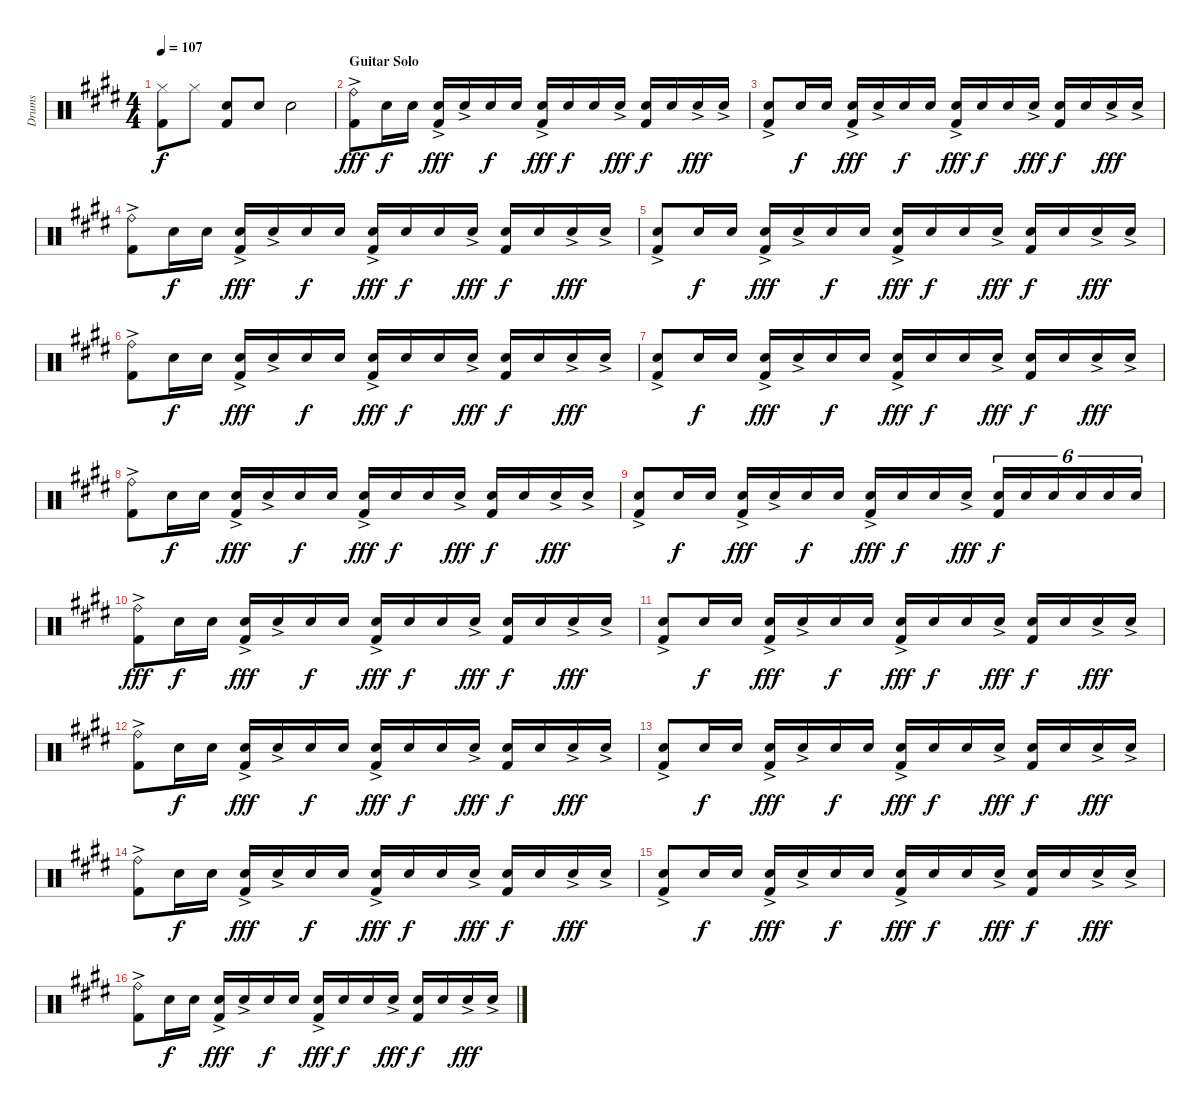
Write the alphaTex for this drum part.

\track ("Drums" "Drums") {instrument percussion}
\staff {score}
\articulation defaults
\ts (4 4)
\tempo 107
\clef neutral
\ks c#minor
("Hi-Hat (closed)" "Kick (hit) 2").8{dy f} "Hi-Hat (closed)".8 ("Electric Snare (hit)" "Kick (hit) 2").8 "Electric Snare (hit)".8 "Electric Snare (hit)".2 |
\section ("" "Guitar Solo")
("Ride (bell)"{ac} "Kick (hit) 2").8{dy fff} "Electric Snare (hit)".16{dy f} "Electric Snare (hit)".16 ("Electric Snare (hit)"{ac} "Kick (hit) 2").16{dy fff} "Electric Snare (hit)"{ac}.16 "Electric Snare (hit)".16{dy f} "Electric Snare (hit)".16 ("Electric Snare (hit)"{ac} "Kick (hit) 2").16{dy fff} "Electric Snare (hit)".16{dy f} "Electric Snare (hit)".16 "Electric Snare (hit)"{ac}.16{dy fff} ("Electric Snare (hit)" "Kick (hit) 2").16{dy f} "Electric Snare (hit)".16 "Electric Snare (hit)"{ac}.16{dy fff} "Electric Snare (hit)"{ac}.16 |
("Electric Snare (hit)"{ac} "Kick (hit) 2").8 "Electric Snare (hit)".16{dy f} "Electric Snare (hit)".16 ("Electric Snare (hit)"{ac} "Kick (hit) 2").16{dy fff} "Electric Snare (hit)"{ac}.16 "Electric Snare (hit)".16{dy f} "Electric Snare (hit)".16 ("Electric Snare (hit)"{ac} "Kick (hit) 2").16{dy fff} "Electric Snare (hit)".16{dy f} "Electric Snare (hit)".16 "Electric Snare (hit)"{ac}.16{dy fff} ("Electric Snare (hit)" "Kick (hit) 2").16{dy f} "Electric Snare (hit)".16 "Electric Snare (hit)"{ac}.16{dy fff} "Electric Snare (hit)"{ac}.16 |
("Ride (bell)"{ac} "Kick (hit) 2").8 "Electric Snare (hit)".16{dy f} "Electric Snare (hit)".16 ("Electric Snare (hit)"{ac} "Kick (hit) 2").16{dy fff} "Electric Snare (hit)"{ac}.16 "Electric Snare (hit)".16{dy f} "Electric Snare (hit)".16 ("Electric Snare (hit)"{ac} "Kick (hit) 2").16{dy fff} "Electric Snare (hit)".16{dy f} "Electric Snare (hit)".16 "Electric Snare (hit)"{ac}.16{dy fff} ("Electric Snare (hit)" "Kick (hit) 2").16{dy f} "Electric Snare (hit)".16 "Electric Snare (hit)"{ac}.16{dy fff} "Electric Snare (hit)"{ac}.16 |
("Electric Snare (hit)"{ac} "Kick (hit) 2").8 "Electric Snare (hit)".16{dy f} "Electric Snare (hit)".16 ("Electric Snare (hit)"{ac} "Kick (hit) 2").16{dy fff} "Electric Snare (hit)"{ac}.16 "Electric Snare (hit)".16{dy f} "Electric Snare (hit)".16 ("Electric Snare (hit)"{ac} "Kick (hit) 2").16{dy fff} "Electric Snare (hit)".16{dy f} "Electric Snare (hit)".16 "Electric Snare (hit)"{ac}.16{dy fff} ("Electric Snare (hit)" "Kick (hit) 2").16{dy f} "Electric Snare (hit)".16 "Electric Snare (hit)"{ac}.16{dy fff} "Electric Snare (hit)"{ac}.16 |
("Ride (bell)"{ac} "Kick (hit) 2").8 "Electric Snare (hit)".16{dy f} "Electric Snare (hit)".16 ("Electric Snare (hit)"{ac} "Kick (hit) 2").16{dy fff} "Electric Snare (hit)"{ac}.16 "Electric Snare (hit)".16{dy f} "Electric Snare (hit)".16 ("Electric Snare (hit)"{ac} "Kick (hit) 2").16{dy fff} "Electric Snare (hit)".16{dy f} "Electric Snare (hit)".16 "Electric Snare (hit)"{ac}.16{dy fff} ("Electric Snare (hit)" "Kick (hit) 2").16{dy f} "Electric Snare (hit)".16 "Electric Snare (hit)"{ac}.16{dy fff} "Electric Snare (hit)"{ac}.16 |
("Electric Snare (hit)"{ac} "Kick (hit) 2").8 "Electric Snare (hit)".16{dy f} "Electric Snare (hit)".16 ("Electric Snare (hit)"{ac} "Kick (hit) 2").16{dy fff} "Electric Snare (hit)"{ac}.16 "Electric Snare (hit)".16{dy f} "Electric Snare (hit)".16 ("Electric Snare (hit)"{ac} "Kick (hit) 2").16{dy fff} "Electric Snare (hit)".16{dy f} "Electric Snare (hit)".16 "Electric Snare (hit)"{ac}.16{dy fff} ("Electric Snare (hit)" "Kick (hit) 2").16{dy f} "Electric Snare (hit)".16 "Electric Snare (hit)"{ac}.16{dy fff} "Electric Snare (hit)"{ac}.16 |
("Ride (bell)"{ac} "Kick (hit) 2").8 "Electric Snare (hit)".16{dy f} "Electric Snare (hit)".16 ("Electric Snare (hit)"{ac} "Kick (hit) 2").16{dy fff} "Electric Snare (hit)"{ac}.16 "Electric Snare (hit)".16{dy f} "Electric Snare (hit)".16 ("Electric Snare (hit)"{ac} "Kick (hit) 2").16{dy fff} "Electric Snare (hit)".16{dy f} "Electric Snare (hit)".16 "Electric Snare (hit)"{ac}.16{dy fff} ("Electric Snare (hit)" "Kick (hit) 2").16{dy f} "Electric Snare (hit)".16 "Electric Snare (hit)"{ac}.16{dy fff} "Electric Snare (hit)"{ac}.16 |
("Electric Snare (hit)"{ac} "Kick (hit) 2").8 "Electric Snare (hit)".16{dy f} "Electric Snare (hit)".16 ("Electric Snare (hit)"{ac} "Kick (hit) 2").16{dy fff} "Electric Snare (hit)"{ac}.16 "Electric Snare (hit)".16{dy f} "Electric Snare (hit)".16 ("Electric Snare (hit)"{ac} "Kick (hit) 2").16{dy fff} "Electric Snare (hit)".16{dy f} "Electric Snare (hit)".16 "Electric Snare (hit)"{ac}.16{dy fff} ("Electric Snare (hit)" "Kick (hit) 2").16{tu (6 4) dy f} "Electric Snare (hit)".16{tu (6 4)} "Electric Snare (hit)".16{tu (6 4)} "Electric Snare (hit)".16{tu (6 4)} "Electric Snare (hit)".16{tu (6 4)} "Electric Snare (hit)".16{tu (6 4)} |
("Ride (bell)"{ac} "Kick (hit) 2").8{dy fff} "Electric Snare (hit)".16{dy f} "Electric Snare (hit)".16 ("Electric Snare (hit)"{ac} "Kick (hit) 2").16{dy fff} "Electric Snare (hit)"{ac}.16 "Electric Snare (hit)".16{dy f} "Electric Snare (hit)".16 ("Electric Snare (hit)"{ac} "Kick (hit) 2").16{dy fff} "Electric Snare (hit)".16{dy f} "Electric Snare (hit)".16 "Electric Snare (hit)"{ac}.16{dy fff} ("Electric Snare (hit)" "Kick (hit) 2").16{dy f} "Electric Snare (hit)".16 "Electric Snare (hit)"{ac}.16{dy fff} "Electric Snare (hit)"{ac}.16 |
("Electric Snare (hit)"{ac} "Kick (hit) 2").8 "Electric Snare (hit)".16{dy f} "Electric Snare (hit)".16 ("Electric Snare (hit)"{ac} "Kick (hit) 2").16{dy fff} "Electric Snare (hit)"{ac}.16 "Electric Snare (hit)".16{dy f} "Electric Snare (hit)".16 ("Electric Snare (hit)"{ac} "Kick (hit) 2").16{dy fff} "Electric Snare (hit)".16{dy f} "Electric Snare (hit)".16 "Electric Snare (hit)"{ac}.16{dy fff} ("Electric Snare (hit)" "Kick (hit) 2").16{dy f} "Electric Snare (hit)".16 "Electric Snare (hit)"{ac}.16{dy fff} "Electric Snare (hit)"{ac}.16 |
("Ride (bell)"{ac} "Kick (hit) 2").8 "Electric Snare (hit)".16{dy f} "Electric Snare (hit)".16 ("Electric Snare (hit)"{ac} "Kick (hit) 2").16{dy fff} "Electric Snare (hit)"{ac}.16 "Electric Snare (hit)".16{dy f} "Electric Snare (hit)".16 ("Electric Snare (hit)"{ac} "Kick (hit) 2").16{dy fff} "Electric Snare (hit)".16{dy f} "Electric Snare (hit)".16 "Electric Snare (hit)"{ac}.16{dy fff} ("Electric Snare (hit)" "Kick (hit) 2").16{dy f} "Electric Snare (hit)".16 "Electric Snare (hit)"{ac}.16{dy fff} "Electric Snare (hit)"{ac}.16 |
("Electric Snare (hit)"{ac} "Kick (hit) 2").8 "Electric Snare (hit)".16{dy f} "Electric Snare (hit)".16 ("Electric Snare (hit)"{ac} "Kick (hit) 2").16{dy fff} "Electric Snare (hit)"{ac}.16 "Electric Snare (hit)".16{dy f} "Electric Snare (hit)".16 ("Electric Snare (hit)"{ac} "Kick (hit) 2").16{dy fff} "Electric Snare (hit)".16{dy f} "Electric Snare (hit)".16 "Electric Snare (hit)"{ac}.16{dy fff} ("Electric Snare (hit)" "Kick (hit) 2").16{dy f} "Electric Snare (hit)".16 "Electric Snare (hit)"{ac}.16{dy fff} "Electric Snare (hit)"{ac}.16 |
("Ride (bell)"{ac} "Kick (hit) 2").8 "Electric Snare (hit)".16{dy f} "Electric Snare (hit)".16 ("Electric Snare (hit)"{ac} "Kick (hit) 2").16{dy fff} "Electric Snare (hit)"{ac}.16 "Electric Snare (hit)".16{dy f} "Electric Snare (hit)".16 ("Electric Snare (hit)"{ac} "Kick (hit) 2").16{dy fff} "Electric Snare (hit)".16{dy f} "Electric Snare (hit)".16 "Electric Snare (hit)"{ac}.16{dy fff} ("Electric Snare (hit)" "Kick (hit) 2").16{dy f} "Electric Snare (hit)".16 "Electric Snare (hit)"{ac}.16{dy fff} "Electric Snare (hit)"{ac}.16 |
("Electric Snare (hit)"{ac} "Kick (hit) 2").8 "Electric Snare (hit)".16{dy f} "Electric Snare (hit)".16 ("Electric Snare (hit)"{ac} "Kick (hit) 2").16{dy fff} "Electric Snare (hit)"{ac}.16 "Electric Snare (hit)".16{dy f} "Electric Snare (hit)".16 ("Electric Snare (hit)"{ac} "Kick (hit) 2").16{dy fff} "Electric Snare (hit)".16{dy f} "Electric Snare (hit)".16 "Electric Snare (hit)"{ac}.16{dy fff} ("Electric Snare (hit)" "Kick (hit) 2").16{dy f} "Electric Snare (hit)".16 "Electric Snare (hit)"{ac}.16{dy fff} "Electric Snare (hit)"{ac}.16 |
("Ride (bell)"{ac} "Kick (hit) 2").8 "Electric Snare (hit)".16{dy f} "Electric Snare (hit)".16 ("Electric Snare (hit)"{ac} "Kick (hit) 2").16{dy fff} "Electric Snare (hit)"{ac}.16 "Electric Snare (hit)".16{dy f} "Electric Snare (hit)".16 ("Electric Snare (hit)"{ac} "Kick (hit) 2").16{dy fff} "Electric Snare (hit)".16{dy f} "Electric Snare (hit)".16 "Electric Snare (hit)"{ac}.16{dy fff} ("Electric Snare (hit)" "Kick (hit) 2").16{dy f} "Electric Snare (hit)".16 "Electric Snare (hit)"{ac}.16{dy fff} "Electric Snare (hit)"{ac}.16
